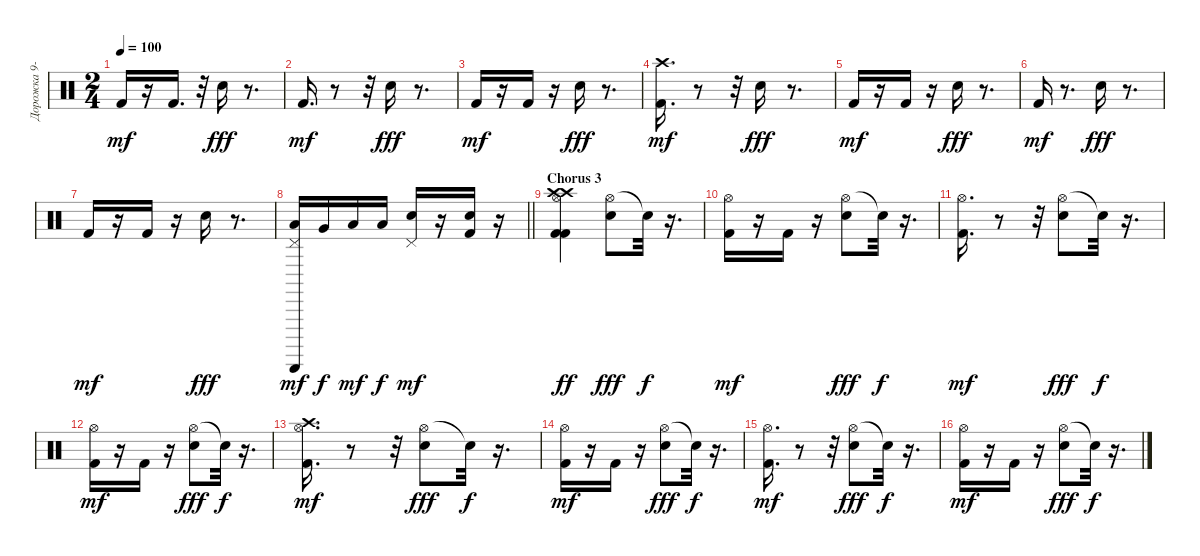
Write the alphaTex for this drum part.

\track ("Дорожка 9-10" "Дорожка 9-") {instrument percussion}
\staff {score}
\articulation defaults
\ts (2 4)
\tempo 100
\clef neutral
\ks c "Kick (hit) 2".16{dy mf}
r.16 "Kick (hit) 2".16{d} r.32 "Snare (hit) 2".16{dy fff} r.8{d} |
"Kick (hit) 2".16{d dy mf} r.8 r.32 "Snare (hit) 2".16{dy fff} r.8{d} |
"Kick (hit) 2".16{dy mf} r.16 "Kick (hit) 2".16 r.16 "Snare (hit) 2".16{dy fff} r.8{d} |
("Kick (hit) 2" "Crash high (hit)").16{d dy mf} r.8 r.32 "Snare (hit) 2".16{dy fff} r.8{d} |
"Kick (hit) 2".16{dy mf} r.16 "Kick (hit) 2".16 r.16 "Snare (hit) 2".16{dy fff} r.8{d} |
"Kick (hit) 2".16{dy mf} r.8{d} "Snare (hit) 2".16{dy fff} r.8{d} |
"Kick (hit) 2".16{dy mf} r.16 "Kick (hit) 2".16 r.16 "Snare (hit) 2".16{dy fff} r.8{d} |
\barLineRight lightlight
("Guiro (scrap-return)" "Pedal Hi-Hat (hit)" "Low Floor Tom (hit)").16{dy mf balance 9} "Very Low Tom (hit)".16{dy f} "Low Tom (hit)".16{dy mf} "Low Floor Tom (hit)".16{dy f} ("Pedal Hi-Hat (hit)" "Snare (hit) 2").16{dy mf} r.16 ("Snare (hit) 2" "Kick (hit) 2").16{balance 9} r.16 |
\section ("" "Chorus 3")
("Kick (hit) 2" "Hi-Hat (open)" "Kick (hit) 2" "Crash high (hit)" "Crash high (hit)").4{dy ff} ("Hi-Hat (open)" "Snare (hit) 2").8{dy fff} "Snare (hit)"{t}.32{dy f} r.16{d} |
("Hi-Hat (open)" "Kick (hit) 2").16{dy mf} r.16 "Kick (hit) 2".16 r.16 ("Hi-Hat (open)" "Snare (hit) 2").8{dy fff} "Snare (hit)"{t}.32{dy f} r.16{d} |
("Hi-Hat (open)" "Kick (hit) 2").16{d dy mf} r.8 r.32 ("Hi-Hat (open)" "Snare (hit) 2").8{dy fff} "Snare (hit)"{t}.32{dy f} r.16{d} |
("Hi-Hat (open)" "Kick (hit) 2").16{dy mf} r.16 "Kick (hit) 2".16 r.16 ("Hi-Hat (open)" "Snare (hit) 2").8{dy fff} "Snare (hit)"{t}.32{dy f} r.16{d} |
("Hi-Hat (open)" "Crash high (hit)" "Kick (hit) 2").16{d dy mf} r.8 r.32 ("Hi-Hat (open)" "Snare (hit) 2").8{dy fff} "Snare (hit)"{t}.32{dy f} r.16{d} |
("Hi-Hat (open)" "Kick (hit) 2").16{dy mf} r.16 "Kick (hit) 2".16 r.16 ("Hi-Hat (open)" "Snare (hit) 2").8{dy fff} "Snare (hit)"{t}.32{dy f} r.16{d} |
("Hi-Hat (open)" "Kick (hit) 2").16{d dy mf} r.8 r.32 ("Hi-Hat (open)" "Snare (hit) 2").8{dy fff} "Snare (hit)"{t}.32{dy f} r.16{d} |
("Hi-Hat (open)" "Kick (hit) 2").16{dy mf} r.16 "Kick (hit) 2".16 r.16 ("Hi-Hat (open)" "Snare (hit) 2").8{dy fff} "Snare (hit)"{t}.32{dy f} r.16{d}
